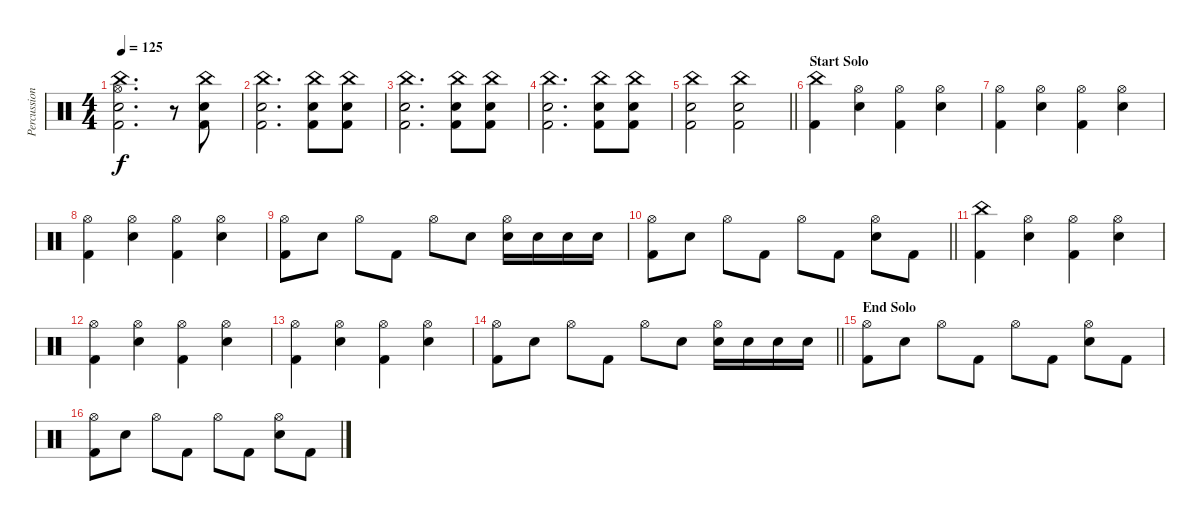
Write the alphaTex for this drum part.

\track ("Percussion" "Percussion") {instrument percussion}
\staff {score}
\articulation defaults
\ts (4 4)
\tempo 125
\clef neutral
\ks c
("China (hit)" "Hi-Hat (open)" "Snare (hit) 2" "Kick (hit) 2").2{d dy f} r.8 ("China (hit)" "Snare (hit) 2" "Kick (hit) 2").8 |
("China (hit)" "Snare (hit) 2" "Kick (hit) 2").2{d} ("China (hit)" "Snare (hit) 2" "Kick (hit) 2").8 ("China (hit)" "Snare (hit) 2" "Kick (hit) 2").8 |
("China (hit)" "Snare (hit) 2" "Kick (hit) 2").2{d} ("China (hit)" "Snare (hit) 2" "Kick (hit) 2").8 ("China (hit)" "Snare (hit) 2" "Kick (hit) 2").8 |
("China (hit)" "Snare (hit) 2" "Kick (hit) 2").2{d} ("China (hit)" "Snare (hit) 2" "Kick (hit) 2").8 ("China (hit)" "Snare (hit) 2" "Kick (hit) 2").8 |
\barLineRight lightlight
("China (hit)" "Snare (hit) 2" "Kick (hit) 2").2 ("China (hit)" "Snare (hit) 2" "Kick (hit) 2").2 |
\section ("" "Start Solo")
("China (hit)" "Kick (hit) 2").4 ("Hi-Hat (open)" "Snare (hit) 2").4 ("Hi-Hat (open)" "Kick (hit) 2").4 ("Hi-Hat (open)" "Snare (hit) 2").4 |
("Hi-Hat (open)" "Kick (hit) 2").4 ("Hi-Hat (open)" "Snare (hit) 2").4 ("Hi-Hat (open)" "Kick (hit) 2").4 ("Hi-Hat (open)" "Snare (hit) 2").4 |
("Hi-Hat (open)" "Kick (hit) 2").4 ("Hi-Hat (open)" "Snare (hit) 2").4 ("Hi-Hat (open)" "Kick (hit) 2").4 ("Hi-Hat (open)" "Snare (hit) 2").4 |
("Hi-Hat (open)" "Kick (hit) 2").8 "Snare (hit) 2".8 "Hi-Hat (open)".8 "Kick (hit) 2".8 "Hi-Hat (open)".8 "Snare (hit) 2".8 ("Hi-Hat (open)" "Snare (hit) 2").16 "Snare (hit) 2".16 "Snare (hit) 2".16 "Snare (hit) 2".16 |
\barLineRight lightlight
("Hi-Hat (open)" "Kick (hit) 2").8 "Snare (hit) 2".8 "Hi-Hat (open)".8 "Kick (hit) 2".8 "Hi-Hat (open)".8 "Kick (hit) 2".8 ("Hi-Hat (open)" "Snare (hit) 2").8 "Kick (hit) 2".8 |
\section ("" "")
("China (hit)" "Kick (hit) 2").4 ("Hi-Hat (open)" "Snare (hit) 2").4 ("Hi-Hat (open)" "Kick (hit) 2").4 ("Hi-Hat (open)" "Snare (hit) 2").4 |
("Hi-Hat (open)" "Kick (hit) 2").4 ("Hi-Hat (open)" "Snare (hit) 2").4 ("Hi-Hat (open)" "Kick (hit) 2").4 ("Hi-Hat (open)" "Snare (hit) 2").4 |
("Hi-Hat (open)" "Kick (hit) 2").4 ("Hi-Hat (open)" "Snare (hit) 2").4 ("Hi-Hat (open)" "Kick (hit) 2").4 ("Hi-Hat (open)" "Snare (hit) 2").4 |
\barLineRight lightlight
("Hi-Hat (open)" "Kick (hit) 2").8 "Snare (hit) 2".8 "Hi-Hat (open)".8 "Kick (hit) 2".8 "Hi-Hat (open)".8 "Snare (hit) 2".8 ("Hi-Hat (open)" "Snare (hit) 2").16 "Snare (hit) 2".16 "Snare (hit) 2".16 "Snare (hit) 2".16 |
\section ("" "End Solo")
("Hi-Hat (open)" "Kick (hit) 2").8 "Snare (hit) 2".8 "Hi-Hat (open)".8 "Kick (hit) 2".8 "Hi-Hat (open)".8 "Kick (hit) 2".8 ("Hi-Hat (open)" "Snare (hit) 2").8 "Kick (hit) 2".8 |
("Hi-Hat (open)" "Kick (hit) 2").8 "Snare (hit) 2".8 "Hi-Hat (open)".8 "Kick (hit) 2".8 "Hi-Hat (open)".8 "Kick (hit) 2".8 ("Hi-Hat (open)" "Snare (hit) 2").8 "Kick (hit) 2".8
